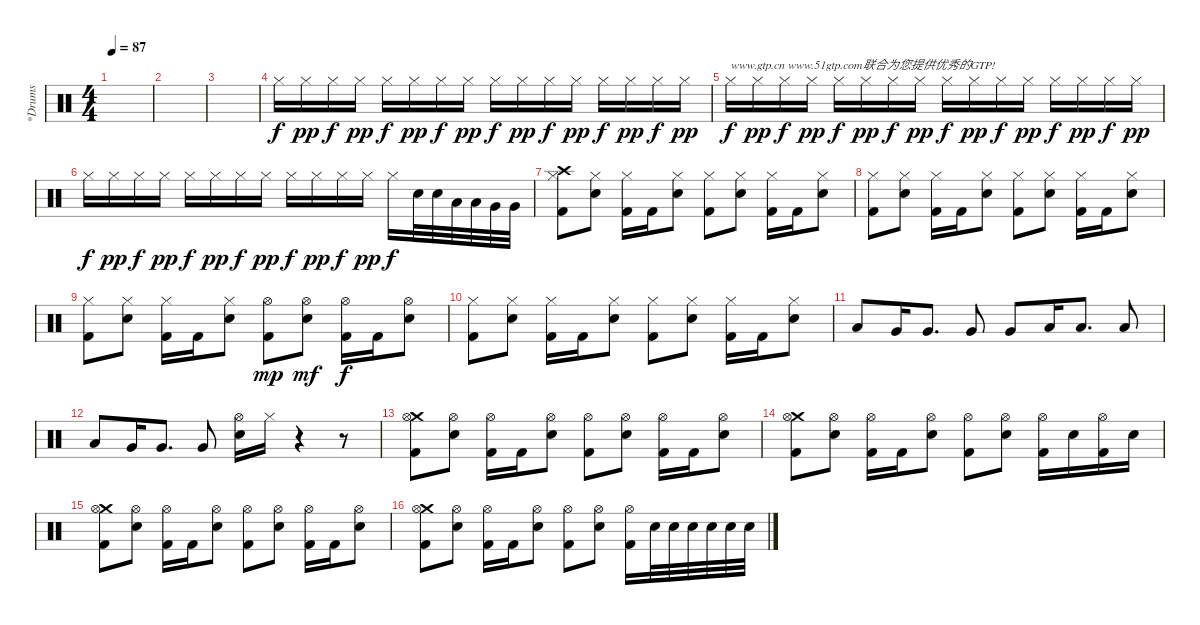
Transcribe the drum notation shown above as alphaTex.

\track ("*Drums" "*Drums") {instrument percussion}
\staff {score}
\articulation defaults
\ts (4 4)
\tempo 87
\clef neutral
\ks c
|
|
|
"Hi-Hat (closed)".16 "Hi-Hat (closed)".16{dy pp} "Hi-Hat (closed)".16{dy f} "Hi-Hat (closed)".16{dy pp} "Hi-Hat (closed)".16{dy f} "Hi-Hat (closed)".16{dy pp} "Hi-Hat (closed)".16{dy f} "Hi-Hat (closed)".16{dy pp} "Hi-Hat (closed)".16{dy f} "Hi-Hat (closed)".16{dy pp} "Hi-Hat (closed)".16{dy f} "Hi-Hat (closed)".16{dy pp} "Hi-Hat (closed)".16{dy f} "Hi-Hat (closed)".16{dy pp} "Hi-Hat (closed)".16{dy f} "Hi-Hat (closed)".16{dy pp} |
"Hi-Hat (closed)".16{txt "www.gtp.cn www.51gtp.com联合为您提供优秀的GTP!" dy f} "Hi-Hat (closed)".16{dy pp} "Hi-Hat (closed)".16{dy f} "Hi-Hat (closed)".16{dy pp} "Hi-Hat (closed)".16{dy f} "Hi-Hat (closed)".16{dy pp} "Hi-Hat (closed)".16{dy f} "Hi-Hat (closed)".16{dy pp} "Hi-Hat (closed)".16{dy f} "Hi-Hat (closed)".16{dy pp} "Hi-Hat (closed)".16{dy f} "Hi-Hat (closed)".16{dy pp} "Hi-Hat (closed)".16{dy f} "Hi-Hat (closed)".16{dy pp} "Hi-Hat (closed)".16{dy f} "Hi-Hat (closed)".16{dy pp} |
"Hi-Hat (closed)".16{dy f} "Hi-Hat (closed)".16{dy pp} "Hi-Hat (closed)".16{dy f} "Hi-Hat (closed)".16{dy pp} "Hi-Hat (closed)".16{dy f} "Hi-Hat (closed)".16{dy pp} "Hi-Hat (closed)".16{dy f} "Hi-Hat (closed)".16{dy pp} "Hi-Hat (closed)".16{dy f} "Hi-Hat (closed)".16{dy pp} "Hi-Hat (closed)".16{dy f} "Hi-Hat (closed)".16{dy pp} "Hi-Hat (closed)".16{dy f} "Electric Snare (hit)".32 "Electric Snare (hit)".32 "Low Tom (hit)".32 "Low Tom (hit)".32 "Very Low Tom (hit)".32 "Very Low Tom (hit)".32 |
("Crash high (hit)" "Hi-Hat (closed)" "Kick (hit) 2").8 ("Hi-Hat (closed)" "Electric Snare (hit)").8 ("Hi-Hat (closed)" "Kick (hit) 2").16 "Kick (hit) 2".16 ("Hi-Hat (closed)" "Electric Snare (hit)").8 ("Hi-Hat (closed)" "Kick (hit) 2").8 ("Hi-Hat (closed)" "Electric Snare (hit)").8 ("Hi-Hat (closed)" "Kick (hit) 2").16 "Kick (hit) 2".16 ("Hi-Hat (closed)" "Electric Snare (hit)").8 |
("Hi-Hat (closed)" "Kick (hit) 2").8 ("Hi-Hat (closed)" "Electric Snare (hit)").8 ("Hi-Hat (closed)" "Kick (hit) 2").16 "Kick (hit) 2".16 ("Hi-Hat (closed)" "Electric Snare (hit)").8 ("Hi-Hat (closed)" "Kick (hit) 2").8 ("Hi-Hat (closed)" "Electric Snare (hit)").8 ("Hi-Hat (closed)" "Kick (hit) 2").16 "Kick (hit) 2".16 ("Hi-Hat (closed)" "Electric Snare (hit)").8 |
("Hi-Hat (closed)" "Kick (hit) 2").8 ("Hi-Hat (closed)" "Electric Snare (hit)").8 ("Hi-Hat (closed)" "Kick (hit) 2").16 "Kick (hit) 2".16 ("Hi-Hat (closed)" "Electric Snare (hit)").8 ("Hi-Hat (open)" "Kick (hit) 2").8{dy mp} ("Hi-Hat (open)" "Electric Snare (hit)").8{dy mf} ("Hi-Hat (open)" "Kick (hit) 2").16{dy f} "Kick (hit) 2".16 ("Hi-Hat (open)" "Electric Snare (hit)").8 |
("Hi-Hat (closed)" "Kick (hit) 2").8 ("Hi-Hat (closed)" "Electric Snare (hit)").8 ("Hi-Hat (closed)" "Kick (hit) 2").16 "Kick (hit) 2".16 ("Hi-Hat (closed)" "Electric Snare (hit)").8 ("Hi-Hat (closed)" "Kick (hit) 2").8 ("Hi-Hat (closed)" "Electric Snare (hit)").8 ("Hi-Hat (closed)" "Kick (hit) 2").16 "Kick (hit) 2".16 ("Hi-Hat (closed)" "Electric Snare (hit)").8 |
"Low Tom (hit)".8 "Very Low Tom (hit)".16 "Very Low Tom (hit)".8{d} "Very Low Tom (hit)".8 "Very Low Tom (hit)".8 "Low Floor Tom (hit)".16 "Low Floor Tom (hit)".8{d} "Low Floor Tom (hit)".8 |
"Low Tom (hit)".8 "Very Low Tom (hit)".16 "Very Low Tom (hit)".8{d} "Very Low Tom (hit)".8 ("Hi-Hat (open)" "Electric Snare (hit)").16 "Hi-Hat (closed)".16 r.4 r.8 |
("Crash medium (hit)" "Hi-Hat (open)" "Kick (hit) 2").8 ("Hi-Hat (open)" "Electric Snare (hit)").8 ("Hi-Hat (open)" "Kick (hit) 2").16 "Kick (hit) 2".16 ("Hi-Hat (open)" "Electric Snare (hit)").8 ("Hi-Hat (open)" "Kick (hit) 2").8 ("Hi-Hat (open)" "Electric Snare (hit)").8 ("Hi-Hat (open)" "Kick (hit) 2").16 "Kick (hit) 2".16 ("Hi-Hat (open)" "Electric Snare (hit)").8 |
("Crash medium (hit)" "Hi-Hat (open)" "Kick (hit) 2").8 ("Hi-Hat (open)" "Electric Snare (hit)").8 ("Hi-Hat (open)" "Kick (hit) 2").16 "Kick (hit) 2".16 ("Hi-Hat (open)" "Electric Snare (hit)").8 ("Hi-Hat (open)" "Kick (hit) 2").8 ("Hi-Hat (open)" "Electric Snare (hit)").8 ("Hi-Hat (open)" "Kick (hit) 2").16 "Electric Snare (hit)".16 ("Hi-Hat (open)" "Kick (hit) 2").16 "Electric Snare (hit)".16 |
("Crash medium (hit)" "Hi-Hat (open)" "Kick (hit) 2").8 ("Hi-Hat (open)" "Electric Snare (hit)").8 ("Hi-Hat (open)" "Kick (hit) 2").16 "Kick (hit) 2".16 ("Hi-Hat (open)" "Electric Snare (hit)").8 ("Hi-Hat (open)" "Kick (hit) 2").8 ("Hi-Hat (open)" "Electric Snare (hit)").8 ("Hi-Hat (open)" "Kick (hit) 2").16 "Kick (hit) 2".16 ("Hi-Hat (open)" "Electric Snare (hit)").8 |
("Crash medium (hit)" "Hi-Hat (open)" "Kick (hit) 2").8 ("Hi-Hat (open)" "Electric Snare (hit)").8 ("Hi-Hat (open)" "Kick (hit) 2").16 "Kick (hit) 2".16 ("Hi-Hat (open)" "Electric Snare (hit)").8 ("Hi-Hat (open)" "Kick (hit) 2").8 ("Hi-Hat (open)" "Electric Snare (hit)").8 ("Hi-Hat (open)" "Kick (hit) 2").16 "Electric Snare (hit)".32 "Electric Snare (hit)".32 "Electric Snare (hit)".32 "Electric Snare (hit)".32 "Electric Snare (hit)".32 "Electric Snare (hit)".32
